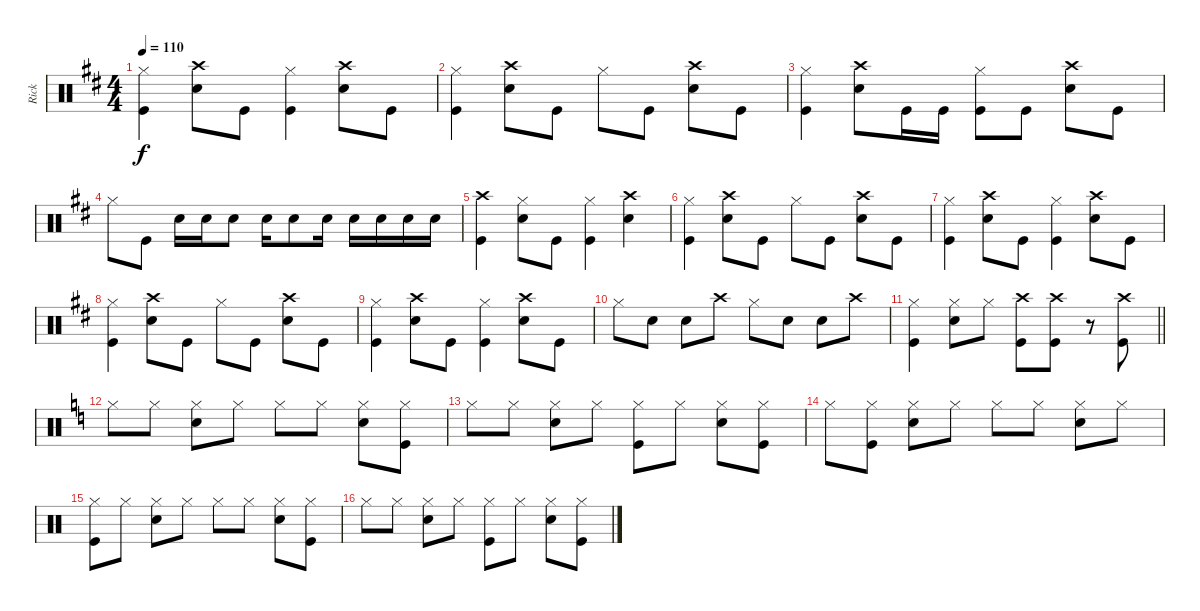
\track ("Rick" "Rick") {instrument percussion}
\staff {score}
\articulation defaults
\ts (4 4)
\tempo 110
\clef neutral
\ks d
("Hi-Hat (closed)" "Kick (hit)").4{dy f} ("Crash high (hit)" "Snare (hit) 2").8 "Kick (hit)".8 ("Hi-Hat (closed)" "Kick (hit)").4 ("Crash high (hit)" "Snare (hit) 2").8 "Kick (hit)".8 |
("Hi-Hat (closed)" "Kick (hit)").4 ("Crash high (hit)" "Snare (hit) 2").8 "Kick (hit)".8 "Hi-Hat (closed)".8 "Kick (hit)".8 ("Crash high (hit)" "Snare (hit) 2").8 "Kick (hit)".8 |
("Hi-Hat (closed)" "Kick (hit)").4 ("Crash high (hit)" "Snare (hit) 2").8 "Kick (hit)".16 "Kick (hit)".16 ("Hi-Hat (closed)" "Kick (hit)").8 "Kick (hit)".8 ("Crash high (hit)" "Snare (hit) 2").8 "Kick (hit)".8 |
"Hi-Hat (closed)".8 "Kick (hit)".8 "Snare (hit) 2".16 "Snare (hit) 2".16 "Snare (hit) 2".8 "Snare (hit) 2".16 "Snare (hit) 2".8 "Snare (hit) 2".16 "Snare (hit) 2".16 "Snare (hit) 2".16 "Snare (hit) 2".16 "Snare (hit) 2".16 |
("Crash high (hit)" "Kick (hit)").4 ("Hi-Hat (closed)" "Snare (hit) 2").8 "Kick (hit)".8 ("Hi-Hat (closed)" "Kick (hit)").4 ("Crash high (hit)" "Snare (hit) 2").4 |
("Hi-Hat (closed)" "Kick (hit)").4 ("Crash high (hit)" "Snare (hit) 2").8 "Kick (hit)".8 "Hi-Hat (closed)".8 "Kick (hit)".8 ("Crash high (hit)" "Snare (hit) 2").8 "Kick (hit)".8 |
("Hi-Hat (closed)" "Kick (hit)").4 ("Crash high (hit)" "Snare (hit) 2").8 "Kick (hit)".8 ("Hi-Hat (closed)" "Kick (hit)").4 ("Crash high (hit)" "Snare (hit) 2").8 "Kick (hit)".8 |
("Hi-Hat (closed)" "Kick (hit)").4 ("Crash high (hit)" "Snare (hit) 2").8 "Kick (hit)".8 "Hi-Hat (closed)".8 "Kick (hit)".8 ("Crash high (hit)" "Snare (hit) 2").8 "Kick (hit)".8 |
("Hi-Hat (closed)" "Kick (hit)").4 ("Crash high (hit)" "Snare (hit) 2").8 "Kick (hit)".8 ("Hi-Hat (closed)" "Kick (hit)").4 ("Crash high (hit)" "Snare (hit) 2").8 "Kick (hit)".8 |
"Hi-Hat (closed)".8 "Snare (hit) 2".8 "Snare (hit) 2".8 "Crash high (hit)".8 "Hi-Hat (closed)".8 "Snare (hit) 2".8 "Snare (hit) 2".8 "Crash high (hit)".8 |
\barLineRight lightlight
("Hi-Hat (closed)" "Kick (hit)").4 ("Hi-Hat (closed)" "Snare (hit) 2").8 "Hi-Hat (closed)".8 ("Crash high (hit)" "Kick (hit)").8 ("Crash high (hit)" "Kick (hit)").8 r.8 ("Crash high (hit)" "Kick (hit)").8 |
\ks c "Hi-Hat (closed)".8 "Hi-Hat (closed)".8
("Hi-Hat (closed)" "Snare (hit) 2").8 "Hi-Hat (closed)".8 "Hi-Hat (closed)".8 "Hi-Hat (closed)".8 ("Hi-Hat (closed)" "Snare (hit) 2").8 ("Hi-Hat (closed)" "Kick (hit)").8 |
"Hi-Hat (closed)".8 "Hi-Hat (closed)".8 ("Hi-Hat (closed)" "Snare (hit) 2").8 "Hi-Hat (closed)".8 ("Hi-Hat (closed)" "Kick (hit)").8 "Hi-Hat (closed)".8 ("Hi-Hat (closed)" "Snare (hit) 2").8 ("Hi-Hat (closed)" "Kick (hit)").8 |
"Hi-Hat (closed)".8 ("Hi-Hat (closed)" "Kick (hit)").8 ("Hi-Hat (closed)" "Snare (hit) 2").8 "Hi-Hat (closed)".8 "Hi-Hat (closed)".8 "Hi-Hat (closed)".8 ("Hi-Hat (closed)" "Snare (hit) 2").8 "Hi-Hat (closed)".8 |
("Hi-Hat (closed)" "Kick (hit)").8 "Hi-Hat (closed)".8 ("Hi-Hat (closed)" "Snare (hit) 2").8 "Hi-Hat (closed)".8 "Hi-Hat (closed)".8 "Hi-Hat (closed)".8 ("Hi-Hat (closed)" "Snare (hit) 2").8 ("Hi-Hat (closed)" "Kick (hit)").8 |
"Hi-Hat (closed)".8 "Hi-Hat (closed)".8 ("Hi-Hat (closed)" "Snare (hit) 2").8 "Hi-Hat (closed)".8 ("Hi-Hat (closed)" "Kick (hit)").8 "Hi-Hat (closed)".8 ("Hi-Hat (closed)" "Snare (hit) 2").8 ("Hi-Hat (closed)" "Kick (hit)").8
